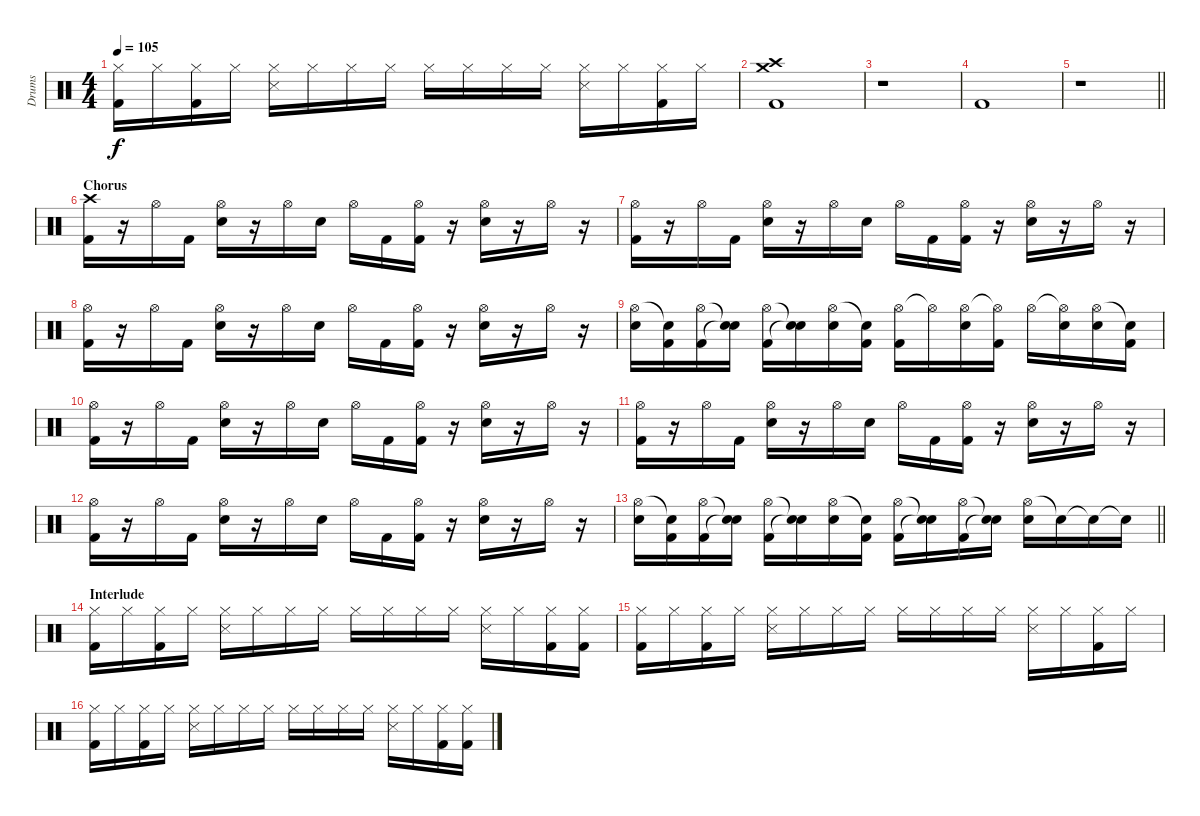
\track ("Drums" "Drums") {instrument percussion}
\staff {score}
\articulation defaults
\ts (4 4)
\tempo 105
\clef neutral
\ks c
("Hi-Hat (closed)" "Kick (hit) 2").16{dy f} "Hi-Hat (closed)".16 ("Hi-Hat (closed)" "Kick (hit) 2").16 "Hi-Hat (closed)".16 ("Hi-Hat (closed)" "Snare (side stick) 3").16 "Hi-Hat (closed)".16 "Hi-Hat (closed)".16 "Hi-Hat (closed)".16 "Hi-Hat (closed)".16 "Hi-Hat (closed)".16 "Hi-Hat (closed)".16 "Hi-Hat (closed)".16 ("Hi-Hat (closed)" "Snare (side stick) 3").16 "Hi-Hat (closed)".16 ("Hi-Hat (closed)" "Kick (hit) 2").16 "Hi-Hat (closed)".16 |
("Crash high (hit)" "Crash medium (hit)" "Kick (hit) 2").1 |
r.1 |
"Kick (hit) 2".1 |
\barLineRight lightlight
r.1 |
\section ("" "Chorus")
("Crash high (hit)" "Kick (hit) 2").16 r.16 "Hi-Hat (open)".16 "Kick (hit) 2".16 ("Hi-Hat (open)" "Electric Snare (hit)").16 r.16 "Hi-Hat (open)".16 "Electric Snare (hit)".16 "Hi-Hat (open)".16 "Kick (hit) 2".16 ("Hi-Hat (open)" "Kick (hit) 2").16 r.16 ("Hi-Hat (open)" "Electric Snare (hit)").16 r.16 "Hi-Hat (open)".16 r.16 |
("Hi-Hat (open)" "Kick (hit) 2").16 r.16 "Hi-Hat (open)".16 "Kick (hit) 2".16 ("Hi-Hat (open)" "Electric Snare (hit)").16 r.16 "Hi-Hat (open)".16 "Electric Snare (hit)".16 "Hi-Hat (open)".16 "Kick (hit) 2".16 ("Hi-Hat (open)" "Kick (hit) 2").16 r.16 ("Hi-Hat (open)" "Electric Snare (hit)").16 r.16 "Hi-Hat (open)".16 r.16 |
("Hi-Hat (open)" "Kick (hit) 2").16 r.16 "Hi-Hat (open)".16 "Kick (hit) 2".16 ("Hi-Hat (open)" "Electric Snare (hit)").16 r.16 "Hi-Hat (open)".16 "Electric Snare (hit)".16 "Hi-Hat (open)".16 "Kick (hit) 2".16 ("Hi-Hat (open)" "Kick (hit) 2").16 r.16 ("Hi-Hat (open)" "Electric Snare (hit)").16 r.16 "Hi-Hat (open)".16 r.16 |
("Hi-Hat (open)" "Electric Snare (hit)").16 ("Snare (hit)"{t} "Kick (hit) 2").16 ("Hi-Hat (open)" "Kick (hit) 2").16 ("Snare (hit)"{t} "Snare (hit)"{t}).16 ("Hi-Hat (open)" "Kick (hit) 2").16 ("Snare (hit)"{t} "Snare (hit)"{t}).16 ("Hi-Hat (open)" "Electric Snare (hit)").16 ("Snare (hit)"{t} "Kick (hit) 2").16 ("Hi-Hat (open)" "Kick (hit) 2").16 "Hi-Hat (open)"{t}.16 ("Hi-Hat (open)" "Electric Snare (hit)").16 ("Hi-Hat (open)"{t} "Kick (hit) 2").16 "Hi-Hat (open)".16 ("Hi-Hat (open)"{t} "Electric Snare (hit)").16 ("Hi-Hat (open)" "Electric Snare (hit)").16 ("Snare (hit)"{t} "Kick (hit) 2").16 |
("Hi-Hat (open)" "Kick (hit) 2").16 r.16 "Hi-Hat (open)".16 "Kick (hit) 2".16 ("Hi-Hat (open)" "Electric Snare (hit)").16 r.16 "Hi-Hat (open)".16 "Electric Snare (hit)".16 "Hi-Hat (open)".16 "Kick (hit) 2".16 ("Hi-Hat (open)" "Kick (hit) 2").16 r.16 ("Hi-Hat (open)" "Electric Snare (hit)").16 r.16 "Hi-Hat (open)".16 r.16 |
("Hi-Hat (open)" "Kick (hit) 2").16 r.16 "Hi-Hat (open)".16 "Kick (hit) 2".16 ("Hi-Hat (open)" "Electric Snare (hit)").16 r.16 "Hi-Hat (open)".16 "Electric Snare (hit)".16 "Hi-Hat (open)".16 "Kick (hit) 2".16 ("Hi-Hat (open)" "Kick (hit) 2").16 r.16 ("Hi-Hat (open)" "Electric Snare (hit)").16 r.16 "Hi-Hat (open)".16 r.16 |
("Hi-Hat (open)" "Kick (hit) 2").16 r.16 "Hi-Hat (open)".16 "Kick (hit) 2".16 ("Hi-Hat (open)" "Electric Snare (hit)").16 r.16 "Hi-Hat (open)".16 "Electric Snare (hit)".16 "Hi-Hat (open)".16 "Kick (hit) 2".16 ("Hi-Hat (open)" "Kick (hit) 2").16 r.16 ("Hi-Hat (open)" "Electric Snare (hit)").16 r.16 "Hi-Hat (open)".16 r.16 |
\barLineRight lightlight
("Hi-Hat (open)" "Electric Snare (hit)").16 ("Snare (hit)"{t} "Kick (hit) 2").16 ("Hi-Hat (open)" "Kick (hit) 2").16 ("Snare (hit)"{t} "Snare (hit)"{t}).16 ("Hi-Hat (open)" "Kick (hit) 2").16 ("Snare (hit)"{t} "Snare (hit)"{t}).16 ("Hi-Hat (open)" "Electric Snare (hit)").16 ("Snare (hit)"{t} "Kick (hit) 2").16 ("Hi-Hat (open)" "Kick (hit) 2").16 ("Snare (hit)"{t} "Snare (hit)"{t}).16 ("Hi-Hat (open)" "Kick (hit) 2").16 ("Snare (hit)"{t} "Snare (hit)"{t}).16 ("Hi-Hat (open)" "Electric Snare (hit)").16 "Snare (hit)"{t}.16 "Snare (hit)"{t}.16 "Snare (hit)"{t}.16 |
\section ("" "Interlude")
("Hi-Hat (closed)" "Kick (hit) 2").16 "Hi-Hat (closed)".16 ("Hi-Hat (closed)" "Kick (hit) 2").16 "Hi-Hat (closed)".16 ("Hi-Hat (closed)" "Snare (side stick) 3").16 "Hi-Hat (closed)".16 "Hi-Hat (closed)".16 "Hi-Hat (closed)".16 "Hi-Hat (closed)".16 "Hi-Hat (closed)".16 "Hi-Hat (closed)".16 "Hi-Hat (closed)".16 ("Hi-Hat (closed)" "Snare (side stick) 3").16 "Hi-Hat (closed)".16 ("Hi-Hat (closed)" "Kick (hit) 2").16 ("Hi-Hat (closed)" "Kick (hit) 2").16 |
("Hi-Hat (closed)" "Kick (hit) 2").16 "Hi-Hat (closed)".16 ("Hi-Hat (closed)" "Kick (hit) 2").16 "Hi-Hat (closed)".16 ("Hi-Hat (closed)" "Snare (side stick) 3").16 "Hi-Hat (closed)".16 "Hi-Hat (closed)".16 "Hi-Hat (closed)".16 "Hi-Hat (closed)".16 "Hi-Hat (closed)".16 "Hi-Hat (closed)".16 "Hi-Hat (closed)".16 ("Hi-Hat (closed)" "Snare (side stick) 3").16 "Hi-Hat (closed)".16 ("Hi-Hat (closed)" "Kick (hit) 2").16 "Hi-Hat (closed)".16 |
("Hi-Hat (closed)" "Kick (hit) 2").16 "Hi-Hat (closed)".16 ("Hi-Hat (closed)" "Kick (hit) 2").16 "Hi-Hat (closed)".16 ("Hi-Hat (closed)" "Snare (side stick) 3").16 "Hi-Hat (closed)".16 "Hi-Hat (closed)".16 "Hi-Hat (closed)".16 "Hi-Hat (closed)".16 "Hi-Hat (closed)".16 "Hi-Hat (closed)".16 "Hi-Hat (closed)".16 ("Hi-Hat (closed)" "Snare (side stick) 3").16 "Hi-Hat (closed)".16 ("Hi-Hat (closed)" "Kick (hit) 2").16 ("Hi-Hat (closed)" "Kick (hit) 2").16
